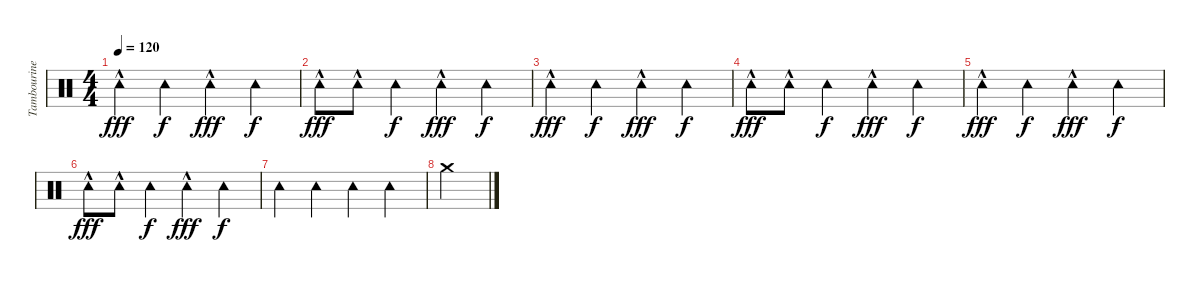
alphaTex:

\track ("Tambourine" "Tambourine") {instrument percussion}
\staff {score}
\articulation defaults
\ts (4 4)
\tempo 120
\clef neutral
\ks c "Tambourine (hit)"{hac}.4{dy fff} "Tambourine (hit)".4{dy f} "Tambourine (hit)"{hac}.4{dy fff} "Tambourine (hit)".4{dy f}
|
"Tambourine (hit)"{hac}.8{dy fff} "Tambourine (hit)"{hac}.8 "Tambourine (hit)".4{dy f} "Tambourine (hit)"{hac}.4{dy fff} "Tambourine (hit)".4{dy f} |
"Tambourine (hit)"{hac}.4{dy fff} "Tambourine (hit)".4{dy f} "Tambourine (hit)"{hac}.4{dy fff} "Tambourine (hit)".4{dy f} |
"Tambourine (hit)"{hac}.8{dy fff} "Tambourine (hit)"{hac}.8 "Tambourine (hit)".4{dy f} "Tambourine (hit)"{hac}.4{dy fff} "Tambourine (hit)".4{dy f} |
"Tambourine (hit)"{hac}.4{dy fff} "Tambourine (hit)".4{dy f} "Tambourine (hit)"{hac}.4{dy fff} "Tambourine (hit)".4{dy f} |
"Tambourine (hit)"{hac}.8{dy fff} "Tambourine (hit)"{hac}.8 "Tambourine (hit)".4{dy f} "Tambourine (hit)"{hac}.4{dy fff} "Tambourine (hit)".4{dy f} |
"Tambourine (hit)".4 "Tambourine (hit)".4 "Tambourine (hit)".4 "Tambourine (hit)".4 |
"Crash medium (hit)".2
